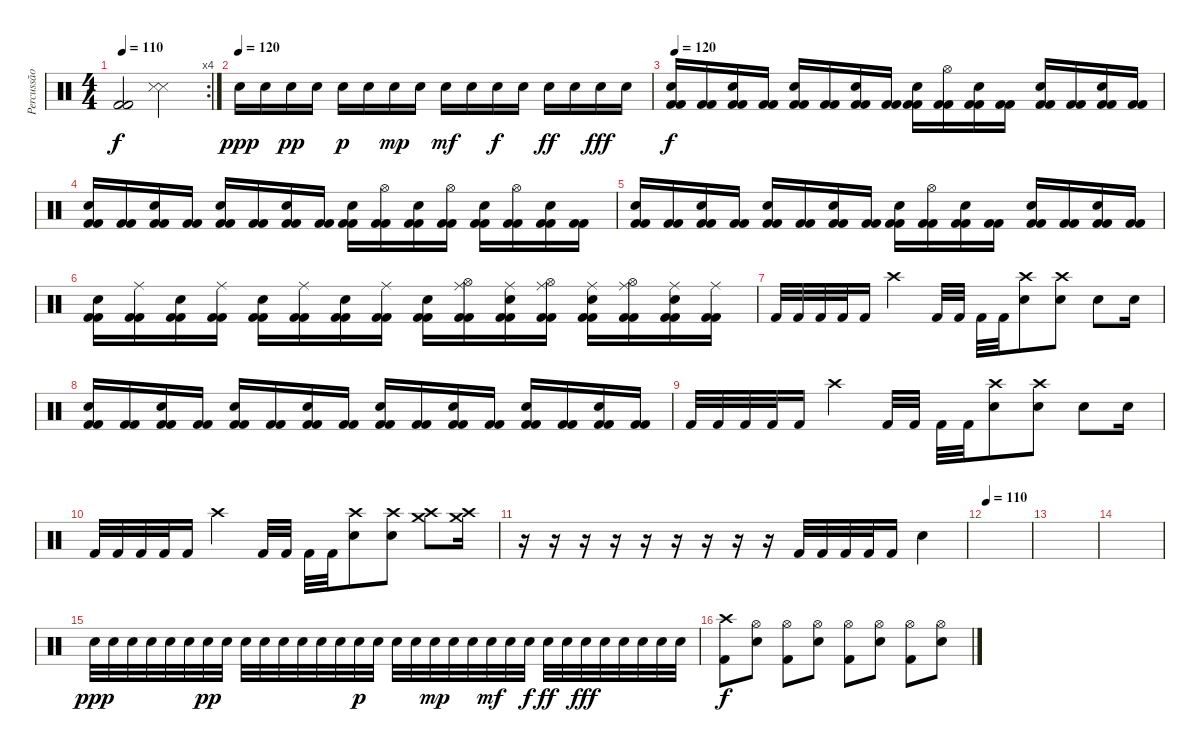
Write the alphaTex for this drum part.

\track ("Percussão" "Percussão") {instrument percussion}
\staff {score}
\articulation defaults
\rc 4
\ts (4 4)
\tempo 110
\clef neutral
\ks c
("Kick (hit) 2" "Kick (hit) 2").2{dy f} ("Metronome (hit)" "Metronome (hit)").2 |
\tempo (120)
"Snare (hit) 2".16{dy ppp} "Snare (hit) 2".16 "Snare (hit) 2".16{dy pp} "Snare (hit) 2".16 "Snare (hit) 2".16{dy p} "Snare (hit) 2".16 "Snare (hit) 2".16{dy mp} "Snare (hit) 2".16 "Snare (hit) 2".16{dy mf} "Snare (hit) 2".16 "Snare (hit) 2".16{dy f} "Snare (hit) 2".16 "Snare (hit) 2".16{dy ff} "Snare (hit) 2".16 "Snare (hit) 2".16{dy fff} "Snare (hit) 2".16 |
\tempo 120
("Snare (hit) 2" "Kick (hit) 2" "Kick (hit) 2").16{dy f} ("Kick (hit) 2" "Kick (hit) 2").16 ("Snare (hit) 2" "Kick (hit) 2" "Kick (hit) 2").16 ("Kick (hit) 2" "Kick (hit) 2").16 ("Snare (hit) 2" "Kick (hit) 2" "Kick (hit) 2").16 ("Kick (hit) 2" "Kick (hit) 2").16 ("Snare (hit) 2" "Kick (hit) 2" "Kick (hit) 2").16 ("Kick (hit) 2" "Kick (hit) 2").16 ("Snare (hit) 2" "Kick (hit) 2" "Kick (hit) 2").16 ("Hi-Hat (open)" "Kick (hit) 2" "Kick (hit) 2").16 ("Snare (hit) 2" "Kick (hit) 2" "Kick (hit) 2").16 ("Kick (hit) 2" "Kick (hit) 2").16 ("Snare (hit) 2" "Kick (hit) 2" "Kick (hit) 2").16 ("Kick (hit) 2" "Kick (hit) 2").16 ("Snare (hit) 2" "Kick (hit) 2" "Kick (hit) 2").16 ("Kick (hit) 2" "Kick (hit) 2").16 |
("Snare (hit) 2" "Kick (hit) 2" "Kick (hit) 2").16 ("Kick (hit) 2" "Kick (hit) 2").16 ("Snare (hit) 2" "Kick (hit) 2" "Kick (hit) 2").16 ("Kick (hit) 2" "Kick (hit) 2").16 ("Snare (hit) 2" "Kick (hit) 2" "Kick (hit) 2").16 ("Kick (hit) 2" "Kick (hit) 2").16 ("Snare (hit) 2" "Kick (hit) 2" "Kick (hit) 2").16 ("Kick (hit) 2" "Kick (hit) 2").16 ("Snare (hit) 2" "Kick (hit) 2" "Kick (hit) 2").16 ("Hi-Hat (open)" "Kick (hit) 2" "Kick (hit) 2").16 ("Snare (hit) 2" "Kick (hit) 2" "Kick (hit) 2").16 ("Hi-Hat (open)" "Kick (hit) 2" "Kick (hit) 2").16 ("Snare (hit) 2" "Kick (hit) 2" "Kick (hit) 2").16 ("Hi-Hat (open)" "Kick (hit) 2" "Kick (hit) 2").16 ("Snare (hit) 2" "Kick (hit) 2" "Kick (hit) 2").16 ("Kick (hit) 2" "Kick (hit) 2").16 |
("Snare (hit) 2" "Kick (hit) 2" "Kick (hit) 2").16 ("Kick (hit) 2" "Kick (hit) 2").16 ("Snare (hit) 2" "Kick (hit) 2" "Kick (hit) 2").16 ("Kick (hit) 2" "Kick (hit) 2").16 ("Snare (hit) 2" "Kick (hit) 2" "Kick (hit) 2").16 ("Kick (hit) 2" "Kick (hit) 2").16 ("Snare (hit) 2" "Kick (hit) 2" "Kick (hit) 2").16 ("Kick (hit) 2" "Kick (hit) 2").16 ("Snare (hit) 2" "Kick (hit) 2" "Kick (hit) 2").16 ("Hi-Hat (open)" "Kick (hit) 2" "Kick (hit) 2").16 ("Snare (hit) 2" "Kick (hit) 2" "Kick (hit) 2").16 ("Kick (hit) 2" "Kick (hit) 2").16 ("Snare (hit) 2" "Kick (hit) 2" "Kick (hit) 2").16 ("Kick (hit) 2" "Kick (hit) 2").16 ("Snare (hit) 2" "Kick (hit) 2" "Kick (hit) 2").16 ("Kick (hit) 2" "Kick (hit) 2").16 |
("Snare (hit) 2" "Kick (hit) 2" "Kick (hit) 2").16 ("Ride (middle)" "Kick (hit) 2" "Kick (hit) 2").16 ("Snare (hit) 2" "Kick (hit) 2" "Kick (hit) 2").16 ("Ride (middle)" "Kick (hit) 2" "Kick (hit) 2").16 ("Snare (hit) 2" "Kick (hit) 2" "Kick (hit) 2").16 ("Ride (middle)" "Kick (hit) 2" "Kick (hit) 2").16 ("Snare (hit) 2" "Kick (hit) 2" "Kick (hit) 2").16 ("Ride (middle)" "Kick (hit) 2" "Kick (hit) 2").16 ("Snare (hit) 2" "Kick (hit) 2" "Kick (hit) 2").16 ("Hi-Hat (open)" "Ride (middle)" "Kick (hit) 2" "Kick (hit) 2").16 ("Ride (middle)" "Snare (hit) 2" "Kick (hit) 2" "Kick (hit) 2").16 ("Hi-Hat (open)" "Ride (middle)" "Kick (hit) 2" "Kick (hit) 2").16 ("Ride (middle)" "Snare (hit) 2" "Kick (hit) 2" "Kick (hit) 2").16 ("Hi-Hat (open)" "Ride (middle)" "Kick (hit) 2" "Kick (hit) 2").16 ("Ride (middle)" "Snare (hit) 2" "Kick (hit) 2" "Kick (hit) 2").16 ("Ride (middle)" "Kick (hit) 2" "Kick (hit) 2").16 |
"Kick (hit) 2".32 "Kick (hit) 2".32 "Kick (hit) 2".32 "Kick (hit) 2".32 "Kick (hit) 2".16 "Crash high (hit)".4 "Kick (hit) 2".32 "Kick (hit) 2".32 "Kick (hit) 2".32 "Kick (hit) 2".32 ("Crash high (hit)" "Snare (hit) 2").8 ("Crash high (hit)" "Snare (hit) 2").8 "Snare (hit) 2".8 "Snare (hit) 2".16 |
("Snare (hit) 2" "Kick (hit) 2" "Kick (hit) 2").16 ("Kick (hit) 2" "Kick (hit) 2").16 ("Snare (hit) 2" "Kick (hit) 2" "Kick (hit) 2").16 ("Kick (hit) 2" "Kick (hit) 2").16 ("Snare (hit) 2" "Kick (hit) 2" "Kick (hit) 2").16 ("Kick (hit) 2" "Kick (hit) 2").16 ("Snare (hit) 2" "Kick (hit) 2" "Kick (hit) 2").16 ("Kick (hit) 2" "Kick (hit) 2").16 ("Snare (hit) 2" "Kick (hit) 2" "Kick (hit) 2").16 ("Kick (hit) 2" "Kick (hit) 2").16 ("Snare (hit) 2" "Kick (hit) 2" "Kick (hit) 2").16 ("Kick (hit) 2" "Kick (hit) 2").16 ("Snare (hit) 2" "Kick (hit) 2" "Kick (hit) 2").16 ("Kick (hit) 2" "Kick (hit) 2").16 ("Snare (hit) 2" "Kick (hit) 2" "Kick (hit) 2").16 ("Kick (hit) 2" "Kick (hit) 2").16 |
"Kick (hit) 2".32 "Kick (hit) 2".32 "Kick (hit) 2".32 "Kick (hit) 2".32 "Kick (hit) 2".16 "Crash high (hit)".4 "Kick (hit) 2".32 "Kick (hit) 2".32 "Kick (hit) 2".32 "Kick (hit) 2".32 ("Crash high (hit)" "Snare (hit) 2").8 ("Crash high (hit)" "Snare (hit) 2").8 "Snare (hit) 2".8 "Snare (hit) 2".16 |
"Kick (hit) 2".32 "Kick (hit) 2".32 "Kick (hit) 2".32 "Kick (hit) 2".32 "Kick (hit) 2".16 "Crash high (hit)".4 "Kick (hit) 2".32 "Kick (hit) 2".32 "Kick (hit) 2".32 "Kick (hit) 2".32 ("Crash high (hit)" "Snare (hit) 2").8 ("Crash high (hit)" "Snare (hit) 2").8 ("Crash high (hit)" "Crash medium (hit)").8 ("Crash high (hit)" "Crash medium (hit)").16 |
r.16 r.16 r.16 r.16 r.16 r.16 r.16 r.16 r.16 "Kick (hit) 2".32 "Kick (hit) 2".32 "Kick (hit) 2".32 "Kick (hit) 2".32 "Kick (hit) 2".16 "Snare (hit) 2".4 |
\tempo 110
|
|
|
"Snare (hit) 2".32{dy ppp} "Snare (hit) 2".32 "Snare (hit) 2".32 "Snare (hit) 2".32 "Snare (hit) 2".32 "Snare (hit) 2".32 "Snare (hit) 2".32{dy pp} "Snare (hit) 2".32 "Snare (hit) 2".32 "Snare (hit) 2".32 "Snare (hit) 2".32 "Snare (hit) 2".32 "Snare (hit) 2".32 "Snare (hit) 2".32 "Snare (hit) 2".32{dy p} "Snare (hit) 2".32 "Snare (hit) 2".32 "Snare (hit) 2".32 "Snare (hit) 2".32{dy mp} "Snare (hit) 2".32 "Snare (hit) 2".32 "Snare (hit) 2".32{dy mf} "Snare (hit) 2".32 "Snare (hit) 2".32{dy f} "Snare (hit) 2".32{dy ff} "Snare (hit) 2".32 "Snare (hit) 2".32{dy fff} "Snare (hit) 2".32 "Snare (hit) 2".32 "Snare (hit) 2".32 "Snare (hit) 2".32 "Snare (hit) 2".32 |
("Crash high (hit)" "Kick (hit) 2").8{dy f} ("Hi-Hat (open)" "Snare (hit) 2").8 ("Hi-Hat (open)" "Kick (hit) 2").8 ("Hi-Hat (open)" "Snare (hit) 2").8 ("Hi-Hat (open)" "Kick (hit) 2").8 ("Hi-Hat (open)" "Snare (hit) 2").8 ("Hi-Hat (open)" "Kick (hit) 2").8 ("Hi-Hat (open)" "Snare (hit) 2").8
